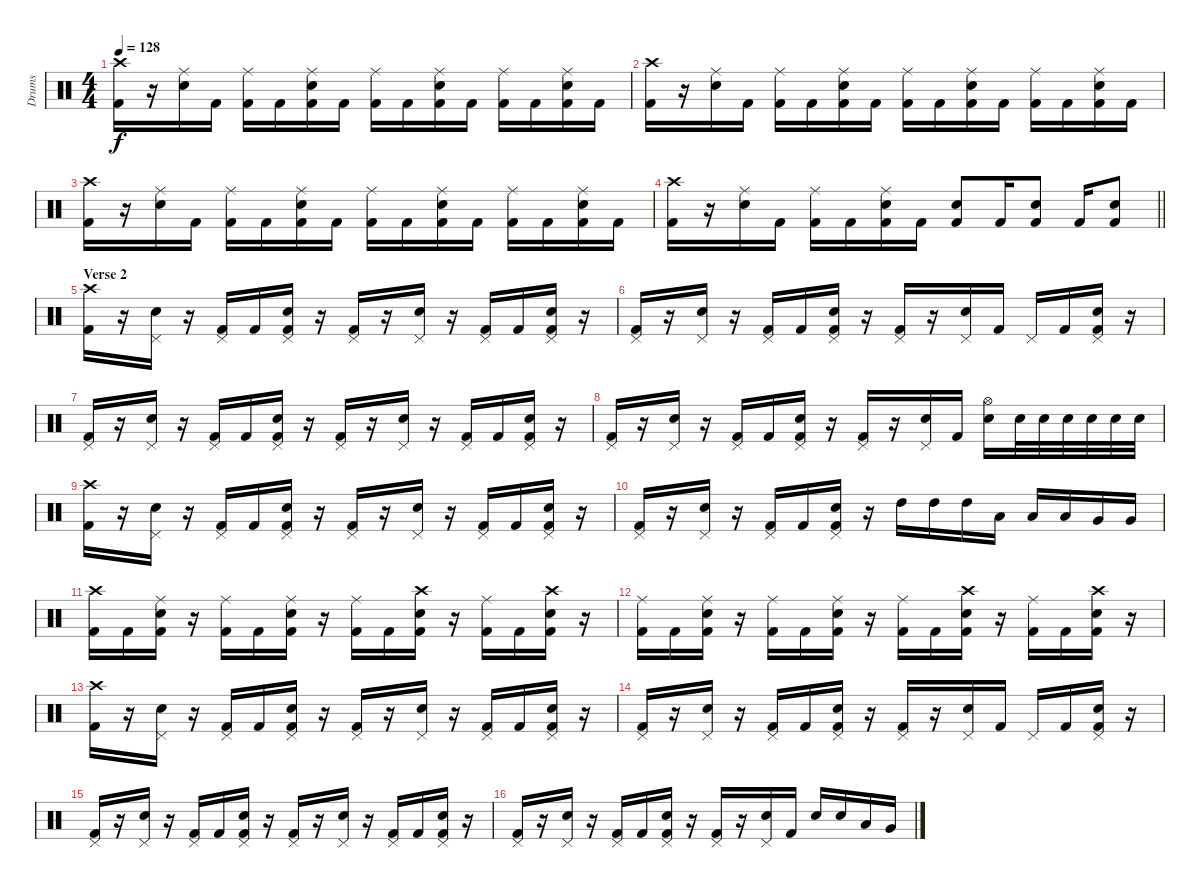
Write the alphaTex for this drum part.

\track ("Drums" "Drums") {instrument percussion}
\staff {score}
\articulation defaults
\ts (4 4)
\tempo 128
\clef neutral
\ks c
("Crash high (hit)" "Kick (hit) 2").16{dy f} r.16 ("Ride (middle)" "Snare (hit) 2").16 "Kick (hit) 2".16 ("Ride (middle)" "Kick (hit) 2").16 "Kick (hit) 2".16 ("Ride (middle)" "Snare (hit) 2" "Kick (hit) 2").16 "Kick (hit) 2".16 ("Ride (middle)" "Kick (hit) 2").16 "Kick (hit) 2".16 ("Ride (middle)" "Snare (hit) 2" "Kick (hit) 2").16 "Kick (hit) 2".16 ("Ride (middle)" "Kick (hit) 2").16 "Kick (hit) 2".16 ("Ride (middle)" "Snare (hit) 2" "Kick (hit) 2").16 "Kick (hit) 2".16 |
("Crash high (hit)" "Kick (hit) 2").16 r.16 ("Ride (middle)" "Snare (hit) 2").16 "Kick (hit) 2".16 ("Ride (middle)" "Kick (hit) 2").16 "Kick (hit) 2".16 ("Ride (middle)" "Snare (hit) 2" "Kick (hit) 2").16 "Kick (hit) 2".16 ("Ride (middle)" "Kick (hit) 2").16 "Kick (hit) 2".16 ("Ride (middle)" "Snare (hit) 2" "Kick (hit) 2").16 "Kick (hit) 2".16 ("Ride (middle)" "Kick (hit) 2").16 "Kick (hit) 2".16 ("Ride (middle)" "Snare (hit) 2" "Kick (hit) 2").16 "Kick (hit) 2".16 |
("Crash high (hit)" "Kick (hit) 2").16 r.16 ("Ride (middle)" "Snare (hit) 2").16 "Kick (hit) 2".16 ("Ride (middle)" "Kick (hit) 2").16 "Kick (hit) 2".16 ("Ride (middle)" "Snare (hit) 2" "Kick (hit) 2").16 "Kick (hit) 2".16 ("Ride (middle)" "Kick (hit) 2").16 "Kick (hit) 2".16 ("Ride (middle)" "Snare (hit) 2" "Kick (hit) 2").16 "Kick (hit) 2".16 ("Ride (middle)" "Kick (hit) 2").16 "Kick (hit) 2".16 ("Ride (middle)" "Snare (hit) 2" "Kick (hit) 2").16 "Kick (hit) 2".16 |
\barLineRight lightlight
("Crash high (hit)" "Kick (hit) 2").16 r.16 ("Ride (middle)" "Snare (hit) 2").16 "Kick (hit) 2".16 ("Ride (middle)" "Kick (hit) 2").16 "Kick (hit) 2".16 ("Ride (middle)" "Snare (hit) 2" "Kick (hit) 2").16 "Kick (hit) 2".16 ("Snare (hit) 2" "Kick (hit) 2").8 "Kick (hit) 2".16 ("Snare (hit) 2" "Kick (hit) 2").8 "Kick (hit) 2".16 ("Snare (hit) 2" "Kick (hit) 2").8 |
\section ("" "Verse 2")
("Crash high (hit)" "Kick (hit) 2").16 r.16 ("Pedal Hi-Hat (hit)" "Snare (hit) 2").16 r.16 ("Pedal Hi-Hat (hit)" "Kick (hit) 2").16 "Kick (hit) 2".16 ("Pedal Hi-Hat (hit)" "Snare (hit) 2" "Kick (hit) 2").16 r.16 ("Pedal Hi-Hat (hit)" "Kick (hit) 2").16 r.16 ("Pedal Hi-Hat (hit)" "Snare (hit) 2").16 r.16 ("Pedal Hi-Hat (hit)" "Kick (hit) 2").16 "Kick (hit) 2".16 ("Pedal Hi-Hat (hit)" "Snare (hit) 2" "Kick (hit) 2").16 r.16 |
("Pedal Hi-Hat (hit)" "Kick (hit) 2").16 r.16 ("Pedal Hi-Hat (hit)" "Snare (hit) 2").16 r.16 ("Pedal Hi-Hat (hit)" "Kick (hit) 2").16 "Kick (hit) 2".16 ("Pedal Hi-Hat (hit)" "Snare (hit) 2" "Kick (hit) 2").16 r.16 ("Pedal Hi-Hat (hit)" "Kick (hit) 2").16 r.16 ("Pedal Hi-Hat (hit)" "Snare (hit) 2").16 "Kick (hit) 2".16 "Pedal Hi-Hat (hit)".16 "Kick (hit) 2".16 ("Pedal Hi-Hat (hit)" "Snare (hit) 2" "Kick (hit) 2").16 r.16 |
("Pedal Hi-Hat (hit)" "Kick (hit) 2").16 r.16 ("Pedal Hi-Hat (hit)" "Snare (hit) 2").16 r.16 ("Pedal Hi-Hat (hit)" "Kick (hit) 2").16 "Kick (hit) 2".16 ("Pedal Hi-Hat (hit)" "Snare (hit) 2" "Kick (hit) 2").16 r.16 ("Pedal Hi-Hat (hit)" "Kick (hit) 2").16 r.16 ("Pedal Hi-Hat (hit)" "Snare (hit) 2").16 r.16 ("Pedal Hi-Hat (hit)" "Kick (hit) 2").16 "Kick (hit) 2".16 ("Pedal Hi-Hat (hit)" "Snare (hit) 2" "Kick (hit) 2").16 r.16 |
("Pedal Hi-Hat (hit)" "Kick (hit) 2").16 r.16 ("Pedal Hi-Hat (hit)" "Snare (hit) 2").16 r.16 ("Pedal Hi-Hat (hit)" "Kick (hit) 2").16 "Kick (hit) 2".16 ("Pedal Hi-Hat (hit)" "Snare (hit) 2" "Kick (hit) 2").16 r.16 ("Pedal Hi-Hat (hit)" "Kick (hit) 2").16 r.16 ("Pedal Hi-Hat (hit)" "Snare (hit) 2").16 "Kick (hit) 2".16 ("Hi-Hat (open)" "Snare (hit) 2").16 "Snare (hit) 2".32 "Snare (hit) 2".32 "Snare (hit) 2".32 "Snare (hit) 2".32 "Snare (hit) 2".32 "Snare (hit) 2".32 |
("Crash high (hit)" "Kick (hit) 2").16 r.16 ("Pedal Hi-Hat (hit)" "Snare (hit) 2").16 r.16 ("Pedal Hi-Hat (hit)" "Kick (hit) 2").16 "Kick (hit) 2".16 ("Pedal Hi-Hat (hit)" "Snare (hit) 2" "Kick (hit) 2").16 r.16 ("Pedal Hi-Hat (hit)" "Kick (hit) 2").16 r.16 ("Pedal Hi-Hat (hit)" "Snare (hit) 2").16 r.16 ("Pedal Hi-Hat (hit)" "Kick (hit) 2").16 "Kick (hit) 2".16 ("Pedal Hi-Hat (hit)" "Snare (hit) 2" "Kick (hit) 2").16 r.16 |
("Pedal Hi-Hat (hit)" "Kick (hit) 2").16 r.16 ("Pedal Hi-Hat (hit)" "Snare (hit) 2").16 r.16 ("Pedal Hi-Hat (hit)" "Kick (hit) 2").16 "Kick (hit) 2".16 ("Pedal Hi-Hat (hit)" "Snare (hit) 2" "Kick (hit) 2").16 r.16 "High Tom (hit)".16 "High Tom (hit)".16 "High Tom (hit)".16 "Low Tom (hit)".16 "Low Tom (hit)".16 "Low Tom (hit)".16 "Very Low Tom (hit)".16 "Very Low Tom (hit)".16 |
("Crash high (hit)" "Kick (hit) 2").16 "Kick (hit) 2".16 ("Ride (middle)" "Snare (hit) 2" "Kick (hit) 2").16 r.16 ("Ride (middle)" "Kick (hit) 2").16 "Kick (hit) 2".16 ("Ride (middle)" "Snare (hit) 2" "Kick (hit) 2").16 r.16 ("Ride (middle)" "Kick (hit) 2").16 "Kick (hit) 2".16 ("Crash high (hit)" "Snare (hit) 2" "Kick (hit) 2").16 r.16 ("Ride (middle)" "Kick (hit) 2").16 "Kick (hit) 2".16 ("Crash high (hit)" "Snare (hit) 2" "Kick (hit) 2").16 r.16 |
("Ride (middle)" "Kick (hit) 2").16 "Kick (hit) 2".16 ("Ride (middle)" "Snare (hit) 2" "Kick (hit) 2").16 r.16 ("Ride (middle)" "Kick (hit) 2").16 "Kick (hit) 2".16 ("Ride (middle)" "Snare (hit) 2" "Kick (hit) 2").16 r.16 ("Ride (middle)" "Kick (hit) 2").16 "Kick (hit) 2".16 ("Crash high (hit)" "Snare (hit) 2" "Kick (hit) 2").16 r.16 ("Ride (middle)" "Kick (hit) 2").16 "Kick (hit) 2".16 ("Crash high (hit)" "Snare (hit) 2" "Kick (hit) 2").16 r.16 |
("Crash high (hit)" "Kick (hit) 2").16 r.16 ("Pedal Hi-Hat (hit)" "Snare (hit) 2").16 r.16 ("Pedal Hi-Hat (hit)" "Kick (hit) 2").16 "Kick (hit) 2".16 ("Pedal Hi-Hat (hit)" "Snare (hit) 2" "Kick (hit) 2").16 r.16 ("Pedal Hi-Hat (hit)" "Kick (hit) 2").16 r.16 ("Pedal Hi-Hat (hit)" "Snare (hit) 2").16 r.16 ("Pedal Hi-Hat (hit)" "Kick (hit) 2").16 "Kick (hit) 2".16 ("Pedal Hi-Hat (hit)" "Snare (hit) 2" "Kick (hit) 2").16 r.16 |
("Pedal Hi-Hat (hit)" "Kick (hit) 2").16 r.16 ("Pedal Hi-Hat (hit)" "Snare (hit) 2").16 r.16 ("Pedal Hi-Hat (hit)" "Kick (hit) 2").16 "Kick (hit) 2".16 ("Pedal Hi-Hat (hit)" "Snare (hit) 2" "Kick (hit) 2").16 r.16 ("Pedal Hi-Hat (hit)" "Kick (hit) 2").16 r.16 ("Pedal Hi-Hat (hit)" "Snare (hit) 2").16 "Kick (hit) 2".16 "Pedal Hi-Hat (hit)".16 "Kick (hit) 2".16 ("Pedal Hi-Hat (hit)" "Snare (hit) 2" "Kick (hit) 2").16 r.16 |
("Pedal Hi-Hat (hit)" "Kick (hit) 2").16 r.16 ("Pedal Hi-Hat (hit)" "Snare (hit) 2").16 r.16 ("Pedal Hi-Hat (hit)" "Kick (hit) 2").16 "Kick (hit) 2".16 ("Pedal Hi-Hat (hit)" "Snare (hit) 2" "Kick (hit) 2").16 r.16 ("Pedal Hi-Hat (hit)" "Kick (hit) 2").16 r.16 ("Pedal Hi-Hat (hit)" "Snare (hit) 2").16 r.16 ("Pedal Hi-Hat (hit)" "Kick (hit) 2").16 "Kick (hit) 2".16 ("Pedal Hi-Hat (hit)" "Snare (hit) 2" "Kick (hit) 2").16 r.16 |
("Pedal Hi-Hat (hit)" "Kick (hit) 2").16 r.16 ("Pedal Hi-Hat (hit)" "Snare (hit) 2").16 r.16 ("Pedal Hi-Hat (hit)" "Kick (hit) 2").16 "Kick (hit) 2".16 ("Pedal Hi-Hat (hit)" "Snare (hit) 2" "Kick (hit) 2").16 r.16 ("Pedal Hi-Hat (hit)" "Kick (hit) 2").16 r.16 ("Pedal Hi-Hat (hit)" "Snare (hit) 2").16 "Kick (hit) 2".16 "Snare (hit) 2".16 "Snare (hit) 2".16 "Low Tom (hit)".16 "Very Low Tom (hit)".16
